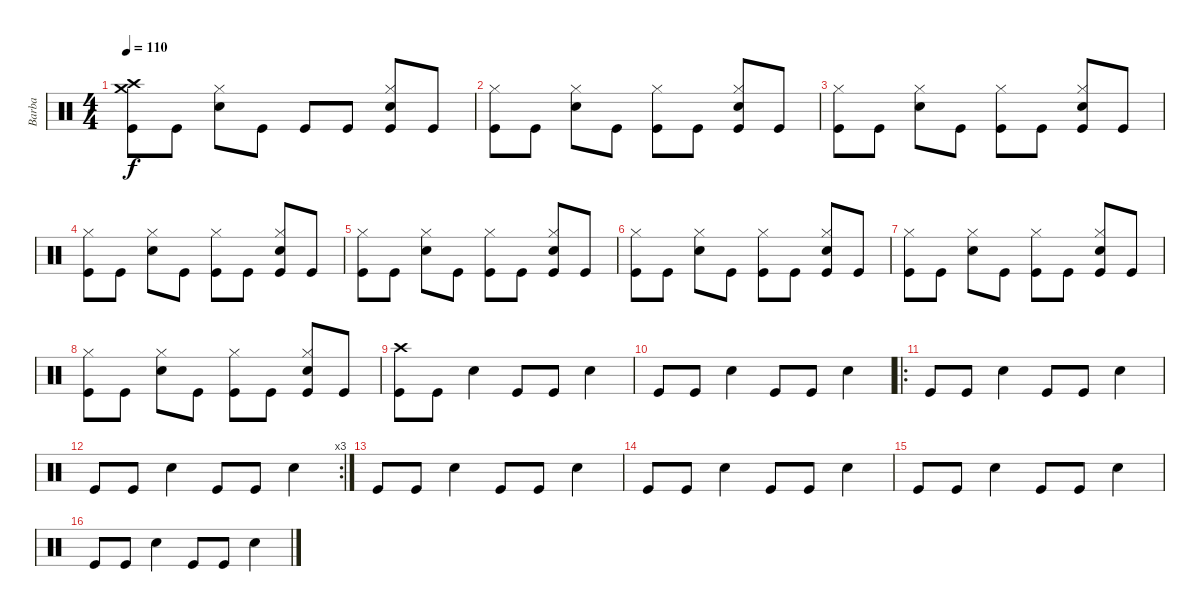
\track ("Barba" "Barba") {instrument percussion}
\staff {score}
\articulation defaults
\ts (4 4)
\tempo 110
\clef neutral
\ks c
("Crash medium (hit)" "Crash high (hit)" "Kick (hit)").8{dy f} "Kick (hit)".8 ("Hi-Hat (closed)" "Electric Snare (hit)").8 "Kick (hit)".8 "Kick (hit)".8 "Kick (hit)".8 ("Hi-Hat (closed)" "Electric Snare (hit)" "Kick (hit)").8 "Kick (hit)".8 |
("Hi-Hat (closed)" "Kick (hit)").8 "Kick (hit)".8 ("Hi-Hat (closed)" "Electric Snare (hit)").8 "Kick (hit)".8 ("Hi-Hat (closed)" "Kick (hit)").8 "Kick (hit)".8 ("Hi-Hat (closed)" "Electric Snare (hit)" "Kick (hit)").8 "Kick (hit)".8 |
("Hi-Hat (closed)" "Kick (hit)").8 "Kick (hit)".8 ("Hi-Hat (closed)" "Electric Snare (hit)").8 "Kick (hit)".8 ("Hi-Hat (closed)" "Kick (hit)").8 "Kick (hit)".8 ("Hi-Hat (closed)" "Electric Snare (hit)" "Kick (hit)").8 "Kick (hit)".8 |
("Hi-Hat (closed)" "Kick (hit)").8 "Kick (hit)".8 ("Hi-Hat (closed)" "Electric Snare (hit)").8 "Kick (hit)".8 ("Hi-Hat (closed)" "Kick (hit)").8 "Kick (hit)".8 ("Hi-Hat (closed)" "Electric Snare (hit)" "Kick (hit)").8 "Kick (hit)".8 |
("Hi-Hat (closed)" "Kick (hit)").8 "Kick (hit)".8 ("Hi-Hat (closed)" "Electric Snare (hit)").8 "Kick (hit)".8 ("Hi-Hat (closed)" "Kick (hit)").8 "Kick (hit)".8 ("Hi-Hat (closed)" "Electric Snare (hit)" "Kick (hit)").8 "Kick (hit)".8 |
("Hi-Hat (closed)" "Kick (hit)").8 "Kick (hit)".8 ("Hi-Hat (closed)" "Electric Snare (hit)").8 "Kick (hit)".8 ("Hi-Hat (closed)" "Kick (hit)").8 "Kick (hit)".8 ("Hi-Hat (closed)" "Electric Snare (hit)" "Kick (hit)").8 "Kick (hit)".8 |
("Hi-Hat (closed)" "Kick (hit)").8 "Kick (hit)".8 ("Hi-Hat (closed)" "Electric Snare (hit)").8 "Kick (hit)".8 ("Hi-Hat (closed)" "Kick (hit)").8 "Kick (hit)".8 ("Hi-Hat (closed)" "Electric Snare (hit)" "Kick (hit)").8 "Kick (hit)".8 |
("Hi-Hat (closed)" "Kick (hit)").8 "Kick (hit)".8 ("Hi-Hat (closed)" "Electric Snare (hit)").8 "Kick (hit)".8 ("Hi-Hat (closed)" "Kick (hit)").8 "Kick (hit)".8 ("Hi-Hat (closed)" "Electric Snare (hit)" "Kick (hit)").8 "Kick (hit)".8 |
("Crash high (hit)" "Kick (hit)").8 "Kick (hit)".8 "Electric Snare (hit)".4 "Kick (hit)".8 "Kick (hit)".8 "Electric Snare (hit)".4 |
"Kick (hit)".8 "Kick (hit)".8 "Electric Snare (hit)".4 "Kick (hit)".8 "Kick (hit)".8 "Electric Snare (hit)".4 |
\ro "Kick (hit)".8 "Kick (hit)".8 "Electric Snare (hit)".4 "Kick (hit)".8 "Kick (hit)".8 "Electric Snare (hit)".4
|
\rc 3 "Kick (hit)".8 "Kick (hit)".8 "Electric Snare (hit)".4 "Kick (hit)".8 "Kick (hit)".8 "Electric Snare (hit)".4
|
"Kick (hit)".8 "Kick (hit)".8 "Electric Snare (hit)".4 "Kick (hit)".8 "Kick (hit)".8 "Electric Snare (hit)".4 |
"Kick (hit)".8 "Kick (hit)".8 "Electric Snare (hit)".4 "Kick (hit)".8 "Kick (hit)".8 "Electric Snare (hit)".4 |
"Kick (hit)".8 "Kick (hit)".8 "Electric Snare (hit)".4 "Kick (hit)".8 "Kick (hit)".8 "Electric Snare (hit)".4 |
"Kick (hit)".8 "Kick (hit)".8 "Electric Snare (hit)".4 "Kick (hit)".8 "Kick (hit)".8 "Electric Snare (hit)".4
